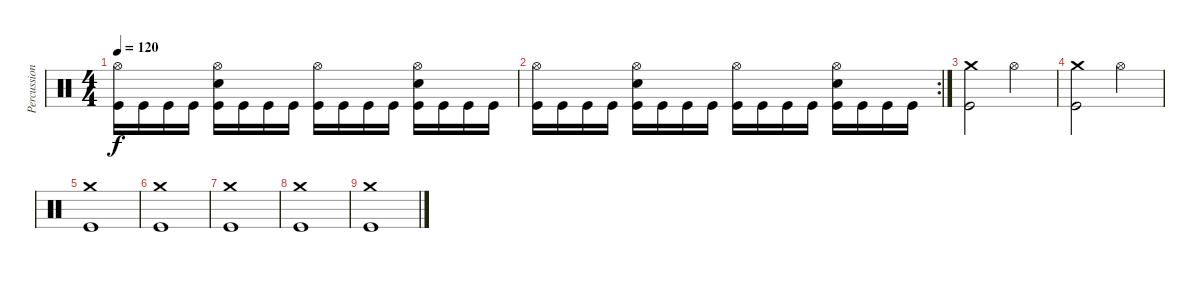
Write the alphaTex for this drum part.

\track ("Percussion" "Percussion") {instrument percussion}
\staff {score}
\articulation defaults
\ts (4 4)
\tempo 120
\clef neutral
\ks c
("Hi-Hat (open)" "Kick (hit)").16{dy f} "Kick (hit)".16 "Kick (hit)".16 "Kick (hit)".16 ("Hi-Hat (open)" "Snare (hit) 2" "Kick (hit)").16 "Kick (hit)".16 "Kick (hit)".16 "Kick (hit)".16 ("Hi-Hat (open)" "Kick (hit)").16 "Kick (hit)".16 "Kick (hit)".16 "Kick (hit)".16 ("Hi-Hat (open)" "Snare (hit) 2" "Kick (hit)").16 "Kick (hit)".16 "Kick (hit)".16 "Kick (hit)".16 |
\rc 2
("Hi-Hat (open)" "Kick (hit)").16 "Kick (hit)".16 "Kick (hit)".16 "Kick (hit)".16 ("Hi-Hat (open)" "Snare (hit) 2" "Kick (hit)").16 "Kick (hit)".16 "Kick (hit)".16 "Kick (hit)".16 ("Hi-Hat (open)" "Kick (hit)").16 "Kick (hit)".16 "Kick (hit)".16 "Kick (hit)".16 ("Hi-Hat (open)" "Snare (hit) 2" "Kick (hit)").16 "Kick (hit)".16 "Kick (hit)".16 "Kick (hit)".16 |
("Crash medium (hit)" "Kick (hit)").2 "Hi-Hat (open)".2 |
("Crash medium (hit)" "Kick (hit)").2 "Hi-Hat (open)".2 |
("Crash medium (hit)" "Kick (hit)").1 |
("Crash medium (hit)" "Kick (hit)").1 |
("Crash medium (hit)" "Kick (hit)").1 |
("Crash medium (hit)" "Kick (hit)").1 |
("Crash medium (hit)" "Kick (hit)").1
